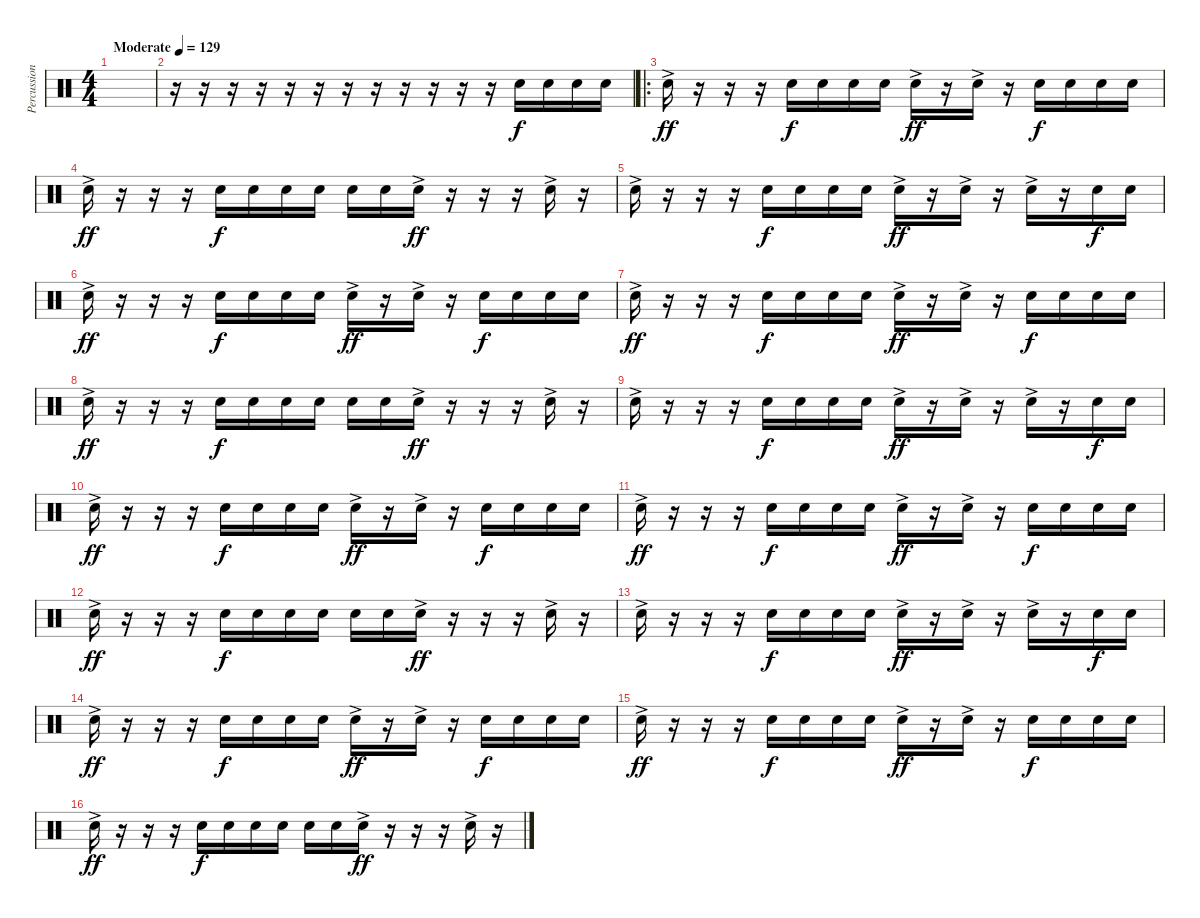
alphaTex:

\track ("Percussion" "Percussion") {instrument percussion bank 159}
\staff {score}
\articulation defaults
\ts (4 4)
\tempo (129 "Moderate")
\clef neutral
\ks c
|
r.16 r.16 r.16 r.16 r.16 r.16 r.16 r.16 r.16 r.16 r.16 r.16 "Snare (hit) 2".16 "Snare (hit) 2".16 "Snare (hit) 2".16 "Snare (hit) 2".16 |
\ro "Snare (hit) 2"{ac}.16{dy ff}
r.16 r.16 r.16 "Snare (hit) 2".16{dy f} "Snare (hit) 2".16 "Snare (hit) 2".16 "Snare (hit) 2".16 "Snare (hit) 2"{ac}.16{dy ff} r.16 "Snare (hit) 2"{ac}.16 r.16 "Snare (hit) 2".16{dy f} "Snare (hit) 2".16 "Snare (hit) 2".16 "Snare (hit) 2".16 |
"Snare (hit) 2"{ac}.16{dy ff} r.16 r.16 r.16 "Snare (hit) 2".16{dy f} "Snare (hit) 2".16 "Snare (hit) 2".16 "Snare (hit) 2".16 "Snare (hit) 2".16 "Snare (hit) 2".16 "Snare (hit) 2"{ac}.16{dy ff} r.16 r.16 r.16 "Snare (hit) 2"{ac}.16 r.16 |
"Snare (hit) 2"{ac}.16 r.16 r.16 r.16 "Snare (hit) 2".16{dy f} "Snare (hit) 2".16 "Snare (hit) 2".16 "Snare (hit) 2".16 "Snare (hit) 2"{ac}.16{dy ff} r.16 "Snare (hit) 2"{ac}.16 r.16 "Snare (hit) 2"{ac}.16 r.16 "Snare (hit) 2".16{dy f} "Snare (hit) 2".16 |
"Snare (hit) 2"{ac}.16{dy ff} r.16 r.16 r.16 "Snare (hit) 2".16{dy f} "Snare (hit) 2".16 "Snare (hit) 2".16 "Snare (hit) 2".16 "Snare (hit) 2"{ac}.16{dy ff} r.16 "Snare (hit) 2"{ac}.16 r.16 "Snare (hit) 2".16{dy f} "Snare (hit) 2".16 "Snare (hit) 2".16 "Snare (hit) 2".16 |
"Snare (hit) 2"{ac}.16{dy ff} r.16 r.16 r.16 "Snare (hit) 2".16{dy f} "Snare (hit) 2".16 "Snare (hit) 2".16 "Snare (hit) 2".16 "Snare (hit) 2"{ac}.16{dy ff} r.16 "Snare (hit) 2"{ac}.16 r.16 "Snare (hit) 2".16{dy f} "Snare (hit) 2".16 "Snare (hit) 2".16 "Snare (hit) 2".16 |
"Snare (hit) 2"{ac}.16{dy ff} r.16 r.16 r.16 "Snare (hit) 2".16{dy f} "Snare (hit) 2".16 "Snare (hit) 2".16 "Snare (hit) 2".16 "Snare (hit) 2".16 "Snare (hit) 2".16 "Snare (hit) 2"{ac}.16{dy ff} r.16 r.16 r.16 "Snare (hit) 2"{ac}.16 r.16 |
"Snare (hit) 2"{ac}.16 r.16 r.16 r.16 "Snare (hit) 2".16{dy f} "Snare (hit) 2".16 "Snare (hit) 2".16 "Snare (hit) 2".16 "Snare (hit) 2"{ac}.16{dy ff} r.16 "Snare (hit) 2"{ac}.16 r.16 "Snare (hit) 2"{ac}.16 r.16 "Snare (hit) 2".16{dy f} "Snare (hit) 2".16 |
"Snare (hit) 2"{ac}.16{dy ff} r.16 r.16 r.16 "Snare (hit) 2".16{dy f} "Snare (hit) 2".16 "Snare (hit) 2".16 "Snare (hit) 2".16 "Snare (hit) 2"{ac}.16{dy ff} r.16 "Snare (hit) 2"{ac}.16 r.16 "Snare (hit) 2".16{dy f} "Snare (hit) 2".16 "Snare (hit) 2".16 "Snare (hit) 2".16 |
"Snare (hit) 2"{ac}.16{dy ff} r.16 r.16 r.16 "Snare (hit) 2".16{dy f} "Snare (hit) 2".16 "Snare (hit) 2".16 "Snare (hit) 2".16 "Snare (hit) 2"{ac}.16{dy ff} r.16 "Snare (hit) 2"{ac}.16 r.16 "Snare (hit) 2".16{dy f} "Snare (hit) 2".16 "Snare (hit) 2".16 "Snare (hit) 2".16 |
"Snare (hit) 2"{ac}.16{dy ff} r.16 r.16 r.16 "Snare (hit) 2".16{dy f} "Snare (hit) 2".16 "Snare (hit) 2".16 "Snare (hit) 2".16 "Snare (hit) 2".16 "Snare (hit) 2".16 "Snare (hit) 2"{ac}.16{dy ff} r.16 r.16 r.16 "Snare (hit) 2"{ac}.16 r.16 |
"Snare (hit) 2"{ac}.16 r.16 r.16 r.16 "Snare (hit) 2".16{dy f} "Snare (hit) 2".16 "Snare (hit) 2".16 "Snare (hit) 2".16 "Snare (hit) 2"{ac}.16{dy ff} r.16 "Snare (hit) 2"{ac}.16 r.16 "Snare (hit) 2"{ac}.16 r.16 "Snare (hit) 2".16{dy f} "Snare (hit) 2".16 |
"Snare (hit) 2"{ac}.16{dy ff} r.16 r.16 r.16 "Snare (hit) 2".16{dy f} "Snare (hit) 2".16 "Snare (hit) 2".16 "Snare (hit) 2".16 "Snare (hit) 2"{ac}.16{dy ff} r.16 "Snare (hit) 2"{ac}.16 r.16 "Snare (hit) 2".16{dy f} "Snare (hit) 2".16 "Snare (hit) 2".16 "Snare (hit) 2".16 |
"Snare (hit) 2"{ac}.16{dy ff} r.16 r.16 r.16 "Snare (hit) 2".16{dy f} "Snare (hit) 2".16 "Snare (hit) 2".16 "Snare (hit) 2".16 "Snare (hit) 2"{ac}.16{dy ff} r.16 "Snare (hit) 2"{ac}.16 r.16 "Snare (hit) 2".16{dy f} "Snare (hit) 2".16 "Snare (hit) 2".16 "Snare (hit) 2".16 |
"Snare (hit) 2"{ac}.16{dy ff} r.16 r.16 r.16 "Snare (hit) 2".16{dy f} "Snare (hit) 2".16 "Snare (hit) 2".16 "Snare (hit) 2".16 "Snare (hit) 2".16 "Snare (hit) 2".16 "Snare (hit) 2"{ac}.16{dy ff} r.16 r.16 r.16 "Snare (hit) 2"{ac}.16 r.16
